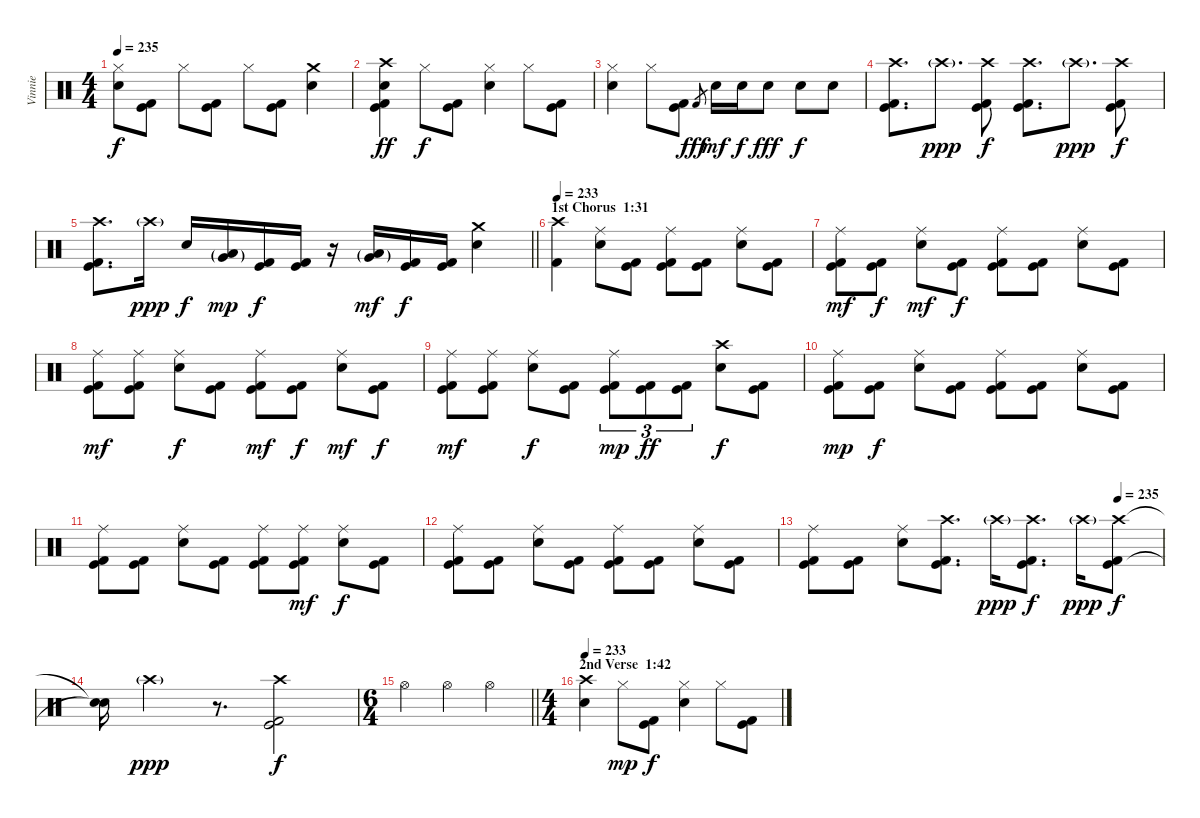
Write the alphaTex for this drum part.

\track ("Vinnie" "Vinnie") {instrument percussion}
\staff {score}
\articulation defaults
\ts (4 4)
\tempo 235
\clef neutral
\ks c
("Hi-Hat (closed)" "Electric Snare (hit)").8{dy f} ("Kick (hit)" "Kick (hit) 2").8 "Hi-Hat (closed)".8 ("Kick (hit)" "Kick (hit) 2").8 "Hi-Hat (closed)".8 ("Kick (hit)" "Kick (hit) 2").8 ("Crash medium (hit)" "Electric Snare (hit)").4 |
("Crash high (hit)" "Electric Snare (hit)" "Kick (hit)" "Kick (hit) 2").4{bd 120 dy ff} "Hi-Hat (closed)".8{dy f} ("Kick (hit)" "Kick (hit) 2").8 ("Hi-Hat (closed)" "Electric Snare (hit)").4 "Hi-Hat (closed)".8 ("Kick (hit)" "Kick (hit) 2").8 |
("Hi-Hat (closed)" "Electric Snare (hit)").4 "Hi-Hat (closed)".8 ("Kick (hit)" "Kick (hit) 2").8 "Kick (hit) 2".8{gr dy fff} "Electric Snare (hit)".16{bd 480 dy mf} "Electric Snare (hit)".16{dy f} "Electric Snare (hit)".8{dy fff} "Electric Snare (hit)".8{dy f} "Electric Snare (hit)".8 |
("Crash high (hit)" "Kick (hit)" "Kick (hit) 2").8{d} "Crash high (hit)"{g}.8{d dy ppp} ("Crash high (hit)" "Kick (hit)" "Kick (hit) 2").8{dy f} ("Crash high (hit)" "Kick (hit)" "Kick (hit) 2").8{d} "Crash high (hit)"{g}.8{d dy ppp} ("Crash high (hit)" "Kick (hit)" "Kick (hit) 2").8{dy f} |
\barLineRight lightlight
("Crash high (hit)" "Kick (hit)" "Kick (hit) 2").8{d} "Crash high (hit)"{g}.16{dy ppp} "Electric Snare (hit)".16{dy f} ("Low Tom (hit)"{g} "Very Low Tom (hit)"{g}).16{dy mp} ("Kick (hit)" "Kick (hit) 2").16{dy f} ("Kick (hit)" "Kick (hit) 2").16 r.16 ("Low Tom (hit)"{g} "Very Low Tom (hit)"{g}).16{dy mf} ("Kick (hit)" "Kick (hit) 2").16{dy f} ("Kick (hit)" "Kick (hit) 2").16 ("Crash medium (hit)" "Electric Snare (hit)").4 |
\section ("" "1st Chorus  1:31")
\tempo 233
("Crash high (hit)" "Kick (hit) 2").4 ("Ride (middle)" "Electric Snare (hit)").8 ("Kick (hit)" "Kick (hit) 2").8 ("Ride (middle)" "Kick (hit)" "Kick (hit) 2").8 ("Kick (hit)" "Kick (hit) 2").8 ("Ride (middle)" "Electric Snare (hit)").8 ("Kick (hit)" "Kick (hit) 2").8 |
("Ride (middle)" "Kick (hit)" "Kick (hit) 2").8{dy mf} ("Kick (hit)" "Kick (hit) 2").8{dy f} ("Ride (middle)" "Electric Snare (hit)").8{dy mf} ("Kick (hit)" "Kick (hit) 2").8{dy f} ("Ride (middle)" "Kick (hit)" "Kick (hit) 2").8 ("Kick (hit)" "Kick (hit) 2").8 ("Ride (middle)" "Electric Snare (hit)").8 ("Kick (hit)" "Kick (hit) 2").8 |
("Ride (middle)" "Kick (hit)" "Kick (hit) 2").8{dy mf} ("Ride (middle)" "Kick (hit)" "Kick (hit) 2").8 ("Ride (middle)" "Electric Snare (hit)").8{dy f} ("Kick (hit)" "Kick (hit) 2").8 ("Ride (middle)" "Kick (hit)" "Kick (hit) 2").8{dy mf} ("Kick (hit)" "Kick (hit) 2").8{dy f} ("Ride (middle)" "Electric Snare (hit)").8{dy mf} ("Kick (hit)" "Kick (hit) 2").8{dy f} |
("Ride (middle)" "Kick (hit)" "Kick (hit) 2").8{dy mf} ("Ride (middle)" "Kick (hit)" "Kick (hit) 2").8 ("Ride (middle)" "Electric Snare (hit)").8{dy f} ("Kick (hit)" "Kick (hit) 2").8 ("Ride (middle)" "Kick (hit)" "Kick (hit) 2").8{tu (3 2) dy mp} ("Kick (hit)" "Kick (hit) 2").8{tu (3 2) dy ff} ("Kick (hit)" "Kick (hit) 2").8{tu (3 2)} ("Crash high (hit)" "Electric Snare (hit)").8{dy f} ("Kick (hit)" "Kick (hit) 2").8 |
("Ride (middle)" "Kick (hit)" "Kick (hit) 2").8{dy mp} ("Kick (hit)" "Kick (hit) 2").8{dy f} ("Ride (middle)" "Electric Snare (hit)").8 ("Kick (hit)" "Kick (hit) 2").8 ("Ride (middle)" "Kick (hit)" "Kick (hit) 2").8 ("Kick (hit)" "Kick (hit) 2").8 ("Ride (middle)" "Electric Snare (hit)").8 ("Kick (hit)" "Kick (hit) 2").8 |
("Ride (middle)" "Kick (hit)" "Kick (hit) 2").8 ("Kick (hit)" "Kick (hit) 2").8 ("Ride (middle)" "Electric Snare (hit)").8 ("Kick (hit)" "Kick (hit) 2").8 ("Ride (middle)" "Kick (hit)" "Kick (hit) 2").8 ("Ride (middle)" "Kick (hit)" "Kick (hit) 2").8{dy mf} ("Ride (middle)" "Electric Snare (hit)").8{dy f} ("Kick (hit)" "Kick (hit) 2").8 |
("Ride (middle)" "Kick (hit)" "Kick (hit) 2").8 ("Kick (hit)" "Kick (hit) 2").8 ("Ride (middle)" "Electric Snare (hit)").8 ("Kick (hit)" "Kick (hit) 2").8 ("Ride (middle)" "Kick (hit)" "Kick (hit) 2").8 ("Kick (hit)" "Kick (hit) 2").8 ("Ride (middle)" "Electric Snare (hit)").8 ("Kick (hit)" "Kick (hit) 2").8 |
\tempo (235 0.875)
("Ride (middle)" "Kick (hit)" "Kick (hit) 2").8 ("Kick (hit)" "Kick (hit) 2").8 ("Ride (middle)" "Electric Snare (hit)").8 ("Crash high (hit)" "Kick (hit)" "Kick (hit) 2").8{d} "Crash high (hit)"{g}.16{dy ppp} ("Crash high (hit)" "Kick (hit)" "Kick (hit) 2").8{d dy f} "Crash high (hit)"{g}.16{dy ppp} ("Crash high (hit)" "Kick (hit)" "Kick (hit) 2").8{dy f} |
("Snare (hit)"{t} "Snare (hit)"{t}).16 "Crash high (hit)"{g}.4{dy ppp} r.8{d} ("Crash high (hit)" "Kick (hit)" "Kick (hit) 2").2{dy f} |
\ts (6 4)
\barLineRight lightlight "Hi-Hat (open)".2 "Hi-Hat (open)".2 "Hi-Hat (open)".2
|
\ts (4 4)
\section ("" "2nd Verse  1:42")
\tempo 233
("Crash high (hit)" "Electric Snare (hit)").4 "Hi-Hat (closed)".8{dy mp} ("Kick (hit)" "Kick (hit) 2").8{dy f} ("Hi-Hat (closed)" "Electric Snare (hit)").4 "Hi-Hat (closed)".8 ("Kick (hit)" "Kick (hit) 2").8
